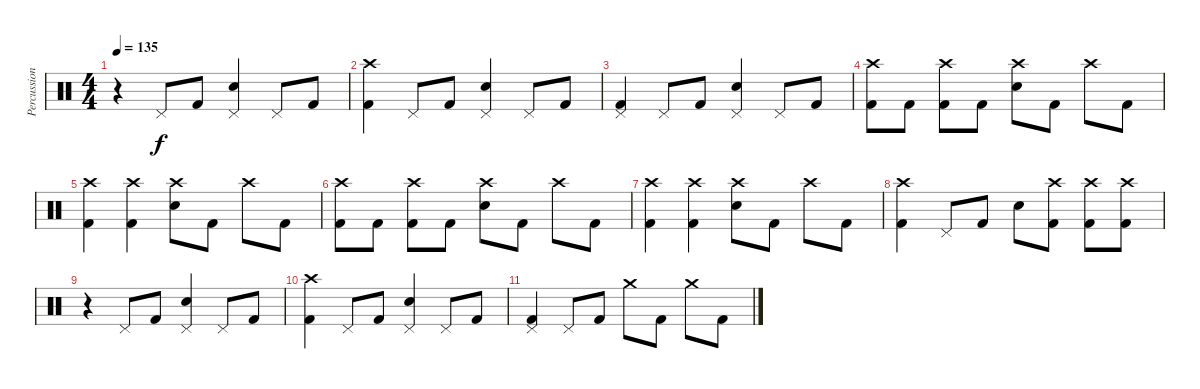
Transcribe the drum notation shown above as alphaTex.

\track ("Percussions" "Percussion") {instrument percussion}
\staff {score}
\articulation defaults
\ts (4 4)
\tempo 135
\clef neutral
\ks c
r.4{dy f} "Pedal Hi-Hat (hit)".8 "Kick (hit) 2".8 ("Pedal Hi-Hat (hit)" "Snare (hit) 2").4 "Pedal Hi-Hat (hit)".8 "Kick (hit) 2".8 |
("Crash high (hit)" "Kick (hit) 2").4 "Pedal Hi-Hat (hit)".8 "Kick (hit) 2".8 ("Pedal Hi-Hat (hit)" "Snare (hit) 2").4 "Pedal Hi-Hat (hit)".8 "Kick (hit) 2".8 |
("Pedal Hi-Hat (hit)" "Kick (hit) 2").4 "Pedal Hi-Hat (hit)".8 "Kick (hit) 2".8 ("Pedal Hi-Hat (hit)" "Snare (hit) 2").4 "Pedal Hi-Hat (hit)".8 "Kick (hit) 2".8 |
("Crash high (hit)" "Kick (hit) 2").8 "Kick (hit) 2".8 ("Crash high (hit)" "Kick (hit) 2").8 "Kick (hit) 2".8 ("Crash high (hit)" "Snare (hit) 2").8 "Kick (hit) 2".8 "Crash high (hit)".8 "Kick (hit) 2".8 |
("Crash high (hit)" "Kick (hit) 2").4 ("Crash high (hit)" "Kick (hit) 2").4 ("Crash high (hit)" "Snare (hit) 2").8 "Kick (hit) 2".8 "Crash high (hit)".8 "Kick (hit) 2".8 |
("Crash high (hit)" "Kick (hit) 2").8 "Kick (hit) 2".8 ("Crash high (hit)" "Kick (hit) 2").8 "Kick (hit) 2".8 ("Crash high (hit)" "Snare (hit) 2").8 "Kick (hit) 2".8 "Crash high (hit)".8 "Kick (hit) 2".8 |
("Crash high (hit)" "Kick (hit) 2").4 ("Crash high (hit)" "Kick (hit) 2").4 ("Crash high (hit)" "Snare (hit) 2").8 "Kick (hit) 2".8 "Crash high (hit)".8 "Kick (hit) 2".8 |
("Crash high (hit)" "Kick (hit) 2").4 "Pedal Hi-Hat (hit)".8 "Kick (hit) 2".8 "Snare (hit) 2".8 ("Crash high (hit)" "Kick (hit) 2").8 ("Crash high (hit)" "Kick (hit) 2").8 ("Crash high (hit)" "Kick (hit) 2").8 |
r.4 "Pedal Hi-Hat (hit)".8 "Kick (hit) 2".8 ("Pedal Hi-Hat (hit)" "Snare (hit) 2").4 "Pedal Hi-Hat (hit)".8 "Kick (hit) 2".8 |
("Crash high (hit)" "Kick (hit) 2").4 "Pedal Hi-Hat (hit)".8 "Kick (hit) 2".8 ("Pedal Hi-Hat (hit)" "Snare (hit) 2").4 "Pedal Hi-Hat (hit)".8 "Kick (hit) 2".8 |
("Pedal Hi-Hat (hit)" "Kick (hit) 2").4 "Pedal Hi-Hat (hit)".8 "Kick (hit) 2".8 "Crash medium (hit)".8 "Kick (hit) 2".8 "Crash medium (hit)".8 "Kick (hit) 2".8
